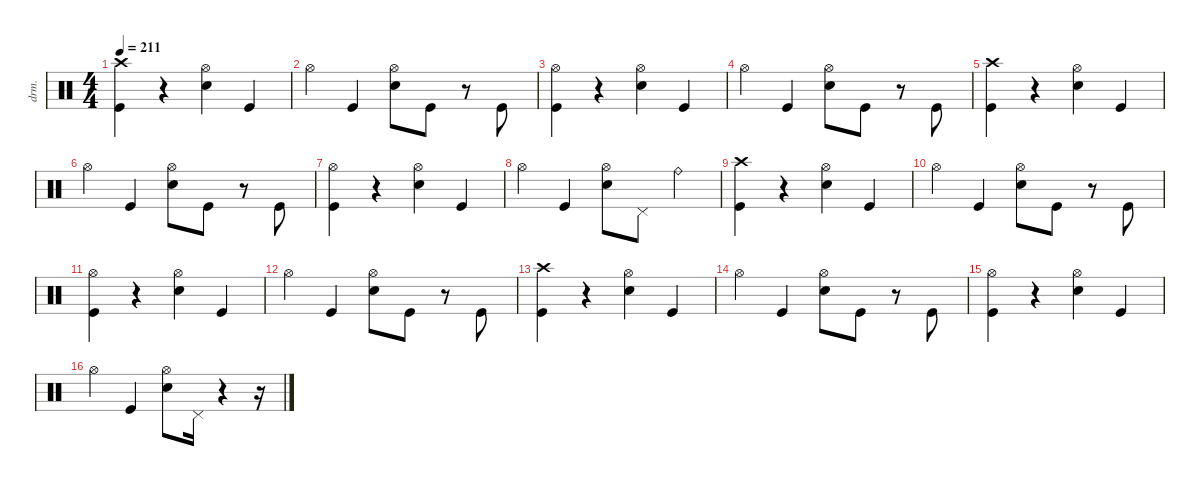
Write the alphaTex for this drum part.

\defaultSystemsLayout 4
\hideDynamics
\bracketExtendMode nobrackets
\track ("Drums" "drm.") {instrument percussion}
\staff {score}
\articulation defaults
\ts (4 4)
\tempo 211
\clef neutral
\ks c
("Kick (hit)" "Crash high (hit)"{acc #}).4{dy ff beam Down} r.4{beam Down} ("Snare (hit) 2" "Hi-Hat (open)"{acc #}).4{beam Down} "Kick (hit)".4{beam Up} |
"Hi-Hat (open)"{acc #}.4{beam Down} "Kick (hit)".4{beam Up} ("Snare (hit) 2" "Hi-Hat (open)"{acc #}).8{beam Down} "Kick (hit)".8{beam Down} r.8{beam Down} "Kick (hit)".8{dy mf beam Up} |
("Kick (hit)" "Hi-Hat (open)"{acc #}).4{dy ff beam Down} r.4{beam Down} ("Snare (hit) 2" "Hi-Hat (open)"{acc #}).4{beam Down} "Kick (hit)".4{beam Up} |
"Hi-Hat (open)"{acc #}.4{beam Down} "Kick (hit)".4{beam Up} ("Snare (hit) 2" "Hi-Hat (open)"{acc #}).8{beam Down} "Kick (hit)".8{beam Down} r.8{beam Down} "Kick (hit)".8{dy mf beam Up} |
("Kick (hit)" "Crash high (hit)"{acc #}).4{dy ff beam Down} r.4{beam Down} ("Snare (hit) 2" "Hi-Hat (open)"{acc #}).4{beam Down} "Kick (hit)".4{beam Up} |
"Hi-Hat (open)"{acc #}.4{beam Down} "Kick (hit)".4{beam Up} ("Snare (hit) 2" "Hi-Hat (open)"{acc #}).8{beam Down} "Kick (hit)".8{beam Down} r.8{beam Down} "Kick (hit)".8{dy mf beam Up} |
("Kick (hit)" "Hi-Hat (open)"{acc #}).4{dy ff beam Down} r.4{beam Down} ("Snare (hit) 2" "Hi-Hat (open)"{acc #}).4{beam Down} "Kick (hit)".4{beam Up} |
"Hi-Hat (open)"{acc #}.4{beam Down} "Kick (hit)".4{dy f beam Up} ("Snare (hit) 2" "Hi-Hat (open)"{acc #}).8{dy ff beam Down} "Pedal Hi-Hat (hit)"{acc #}.8{beam Down} "Ride (bell)".4{dy fff beam Down} |
("Kick (hit)" "Crash high (hit)"{acc #}).4{dy ff beam Down} r.4{beam Down} ("Snare (hit) 2" "Hi-Hat (open)"{acc #}).4{beam Down} "Kick (hit)".4{beam Up} |
"Hi-Hat (open)"{acc #}.4{beam Down} "Kick (hit)".4{beam Up} ("Snare (hit) 2" "Hi-Hat (open)"{acc #}).8{beam Down} "Kick (hit)".8{beam Down} r.8{beam Down} "Kick (hit)".8{dy mf beam Up} |
("Kick (hit)" "Hi-Hat (open)"{acc #}).4{dy ff beam Down} r.4{beam Down} ("Snare (hit) 2" "Hi-Hat (open)"{acc #}).4{beam Down} "Kick (hit)".4{beam Up} |
"Hi-Hat (open)"{acc #}.4{beam Down} "Kick (hit)".4{beam Up} ("Snare (hit) 2" "Hi-Hat (open)"{acc #}).8{beam Down} "Kick (hit)".8{beam Down} r.8{beam Down} "Kick (hit)".8{dy mf beam Up} |
("Kick (hit)" "Crash high (hit)"{acc #}).4{dy ff beam Down} r.4{beam Down} ("Snare (hit) 2" "Hi-Hat (open)"{acc #}).4{beam Down} "Kick (hit)".4{beam Up} |
"Hi-Hat (open)"{acc #}.4{beam Down} "Kick (hit)".4{beam Up} ("Snare (hit) 2" "Hi-Hat (open)"{acc #}).8{beam Down} "Kick (hit)".8{beam Down} r.8{beam Down} "Kick (hit)".8{dy mf beam Up} |
("Kick (hit)" "Hi-Hat (open)"{acc #}).4{dy ff beam Down} r.4{beam Down} ("Snare (hit) 2" "Hi-Hat (open)"{acc #}).4{beam Down} "Kick (hit)".4{beam Up} |
"Hi-Hat (open)"{acc #}.4{beam Down} "Kick (hit)".4{beam Up} ("Snare (hit) 2" "Hi-Hat (open)"{acc #}).8{beam Down} "Pedal Hi-Hat (hit)"{acc #}.16{beam Down} r.4{beam Down} r.16{beam Down}
